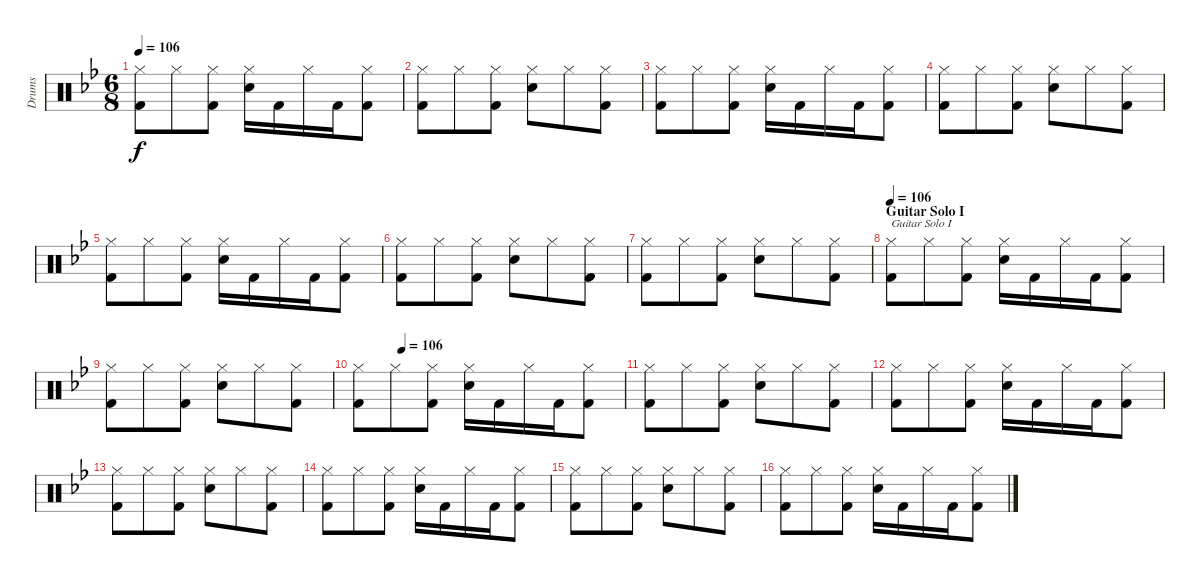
\track ("Drums" "Drums") {instrument percussion}
\staff {score}
\articulation defaults
\ts (6 8)
\tempo 106
\clef neutral
\ks bb
("Hi-Hat (closed)" "Kick (hit) 2").8{dy f} "Hi-Hat (closed)".8 ("Hi-Hat (closed)" "Kick (hit) 2").8 ("Hi-Hat (closed)" "Snare (hit) 2").16 "Kick (hit) 2".16 "Hi-Hat (closed)".16 "Kick (hit) 2".16 ("Hi-Hat (closed)" "Kick (hit) 2").8 |
("Hi-Hat (closed)" "Kick (hit) 2").8 "Hi-Hat (closed)".8 ("Hi-Hat (closed)" "Kick (hit) 2").8 ("Hi-Hat (closed)" "Snare (hit) 2").8 "Hi-Hat (closed)".8 ("Hi-Hat (closed)" "Kick (hit) 2").8 |
("Hi-Hat (closed)" "Kick (hit) 2").8 "Hi-Hat (closed)".8 ("Hi-Hat (closed)" "Kick (hit) 2").8 ("Hi-Hat (closed)" "Snare (hit) 2").16 "Kick (hit) 2".16 "Hi-Hat (closed)".16 "Kick (hit) 2".16 ("Hi-Hat (closed)" "Kick (hit) 2").8 |
("Hi-Hat (closed)" "Kick (hit) 2").8 "Hi-Hat (closed)".8 ("Hi-Hat (closed)" "Kick (hit) 2").8 ("Hi-Hat (closed)" "Snare (hit) 2").8 "Hi-Hat (closed)".8 ("Hi-Hat (closed)" "Kick (hit) 2").8 |
("Hi-Hat (closed)" "Kick (hit) 2").8 "Hi-Hat (closed)".8 ("Hi-Hat (closed)" "Kick (hit) 2").8 ("Hi-Hat (closed)" "Snare (hit) 2").16 "Kick (hit) 2".16 "Hi-Hat (closed)".16 "Kick (hit) 2".16 ("Hi-Hat (closed)" "Kick (hit) 2").8 |
("Hi-Hat (closed)" "Kick (hit) 2").8 "Hi-Hat (closed)".8 ("Hi-Hat (closed)" "Kick (hit) 2").8 ("Hi-Hat (closed)" "Snare (hit) 2").8 "Hi-Hat (closed)".8 ("Hi-Hat (closed)" "Kick (hit) 2").8 |
("Hi-Hat (closed)" "Kick (hit) 2").8 "Hi-Hat (closed)".8 ("Hi-Hat (closed)" "Kick (hit) 2").8 ("Hi-Hat (closed)" "Snare (hit) 2").8 "Hi-Hat (closed)".8 ("Hi-Hat (closed)" "Kick (hit) 2").8 |
\section ("" "Guitar Solo I")
\tempo 106
("Hi-Hat (closed)" "Kick (hit) 2").8{txt "Guitar Solo I"} "Hi-Hat (closed)".8 ("Hi-Hat (closed)" "Kick (hit) 2").8 ("Hi-Hat (closed)" "Snare (hit) 2").16 "Kick (hit) 2".16 "Hi-Hat (closed)".16 "Kick (hit) 2".16 ("Hi-Hat (closed)" "Kick (hit) 2").8 |
("Hi-Hat (closed)" "Kick (hit) 2").8 "Hi-Hat (closed)".8 ("Hi-Hat (closed)" "Kick (hit) 2").8 ("Hi-Hat (closed)" "Snare (hit) 2").8 "Hi-Hat (closed)".8 ("Hi-Hat (closed)" "Kick (hit) 2").8 |
\tempo (106 0.16666666666666666)
("Hi-Hat (closed)" "Kick (hit) 2").8 "Hi-Hat (closed)".8 ("Hi-Hat (closed)" "Kick (hit) 2").8 ("Hi-Hat (closed)" "Snare (hit) 2").16 "Kick (hit) 2".16 "Hi-Hat (closed)".16 "Kick (hit) 2".16 ("Hi-Hat (closed)" "Kick (hit) 2").8 |
("Hi-Hat (closed)" "Kick (hit) 2").8 "Hi-Hat (closed)".8 ("Hi-Hat (closed)" "Kick (hit) 2").8 ("Hi-Hat (closed)" "Snare (hit) 2").8 "Hi-Hat (closed)".8 ("Hi-Hat (closed)" "Kick (hit) 2").8 |
("Hi-Hat (closed)" "Kick (hit) 2").8 "Hi-Hat (closed)".8 ("Hi-Hat (closed)" "Kick (hit) 2").8 ("Hi-Hat (closed)" "Snare (hit) 2").16 "Kick (hit) 2".16 "Hi-Hat (closed)".16 "Kick (hit) 2".16 ("Hi-Hat (closed)" "Kick (hit) 2").8 |
("Hi-Hat (closed)" "Kick (hit) 2").8 "Hi-Hat (closed)".8 ("Hi-Hat (closed)" "Kick (hit) 2").8 ("Hi-Hat (closed)" "Snare (hit) 2").8 "Hi-Hat (closed)".8 ("Hi-Hat (closed)" "Kick (hit) 2").8 |
("Hi-Hat (closed)" "Kick (hit) 2").8 "Hi-Hat (closed)".8 ("Hi-Hat (closed)" "Kick (hit) 2").8 ("Hi-Hat (closed)" "Snare (hit) 2").16 "Kick (hit) 2".16 "Hi-Hat (closed)".16 "Kick (hit) 2".16 ("Hi-Hat (closed)" "Kick (hit) 2").8 |
("Hi-Hat (closed)" "Kick (hit) 2").8 "Hi-Hat (closed)".8 ("Hi-Hat (closed)" "Kick (hit) 2").8 ("Hi-Hat (closed)" "Snare (hit) 2").8 "Hi-Hat (closed)".8 ("Hi-Hat (closed)" "Kick (hit) 2").8 |
("Hi-Hat (closed)" "Kick (hit) 2").8 "Hi-Hat (closed)".8 ("Hi-Hat (closed)" "Kick (hit) 2").8 ("Hi-Hat (closed)" "Snare (hit) 2").16 "Kick (hit) 2".16 "Hi-Hat (closed)".16 "Kick (hit) 2".16 ("Hi-Hat (closed)" "Kick (hit) 2").8
